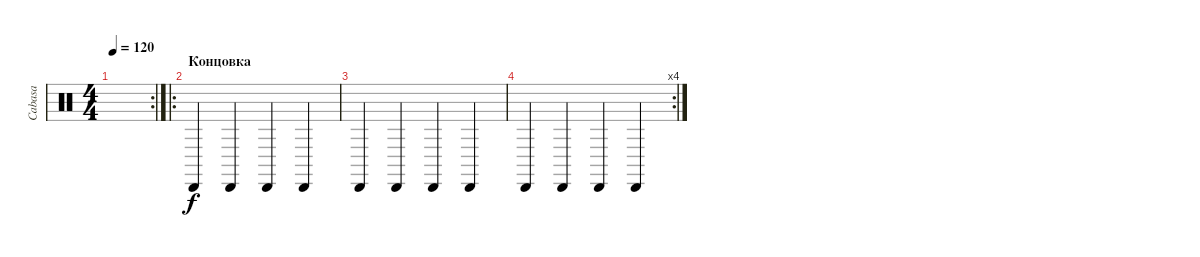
\track ("Cabasa" "Cabasa") {instrument percussion}
\staff {score}
\articulation defaults
\rc 2
\ts (4 4)
\tempo 120
\clef neutral
\ks c
|
\ro
\section ("" "Концовка")
"Cabasa (hit)".4 "Cabasa (hit)".4 "Cabasa (hit)".4 "Cabasa (hit)".4 |
"Cabasa (hit)".4 "Cabasa (hit)".4 "Cabasa (hit)".4 "Cabasa (hit)".4 |
\rc 4 "Cabasa (hit)".4 "Cabasa (hit)".4 "Cabasa (hit)".4 "Cabasa (hit)".4
